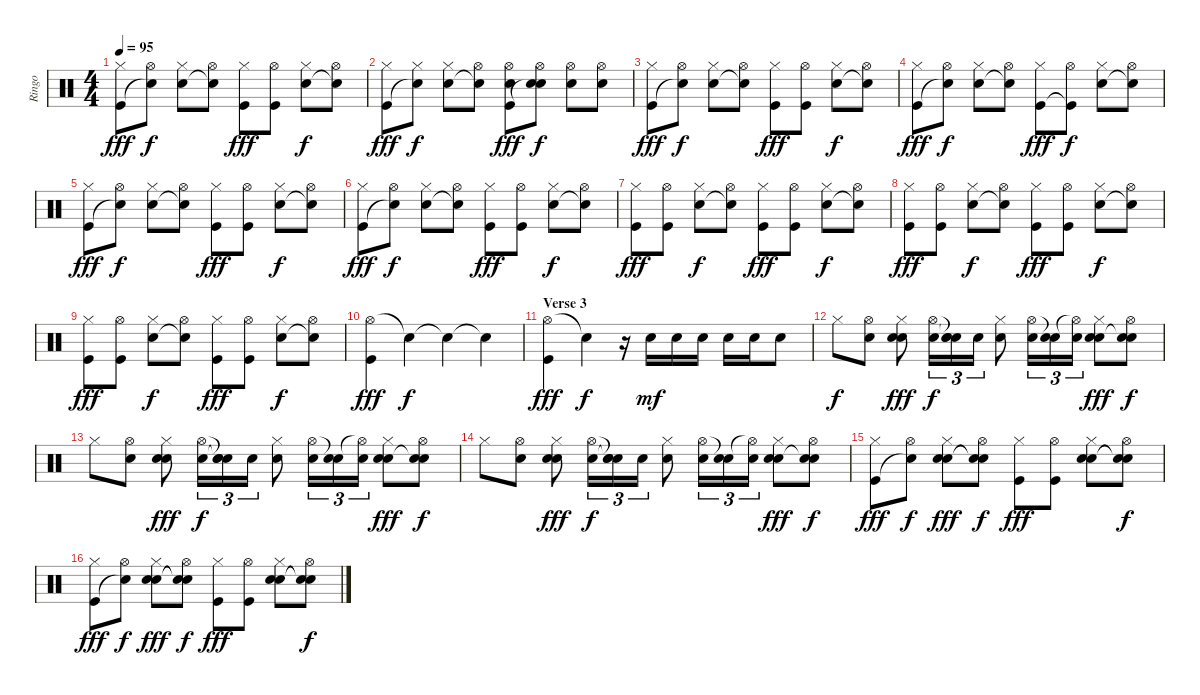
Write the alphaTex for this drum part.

\track ("Ringo" "Ringo") {instrument percussion}
\staff {score}
\articulation defaults
\ts (4 4)
\tempo 95
\clef neutral
\ks c
("Hi-Hat (closed)" "Kick (hit)").8{dy fff} ("Hi-Hat (open)" "Snare (hit)"{t}).8{dy f} ("Hi-Hat (closed)" "Snare (hit) 2").8 ("Hi-Hat (open)" "Snare (hit)"{t}).8 ("Hi-Hat (closed)" "Kick (hit)").8{dy fff} ("Hi-Hat (open)" "Kick (hit)").8 ("Hi-Hat (closed)" "Snare (hit) 2").8{dy f} ("Hi-Hat (open)" "Snare (hit)"{t}).8 |
("Hi-Hat (closed)" "Kick (hit)").8{dy fff} ("Hi-Hat (closed)" "Snare (hit)"{t}).8{dy f} ("Hi-Hat (closed)" "Snare (hit) 2").8 ("Hi-Hat (open)" "Snare (hit)"{t}).8 ("Hi-Hat (open)" "Snare (hit) 2" "Kick (hit)").8{dy fff} ("Hi-Hat (open)" "Snare (hit) 2" "Snare (hit)"{t}).8{dy f} ("Hi-Hat (open)" "Snare (hit) 2").8 ("Hi-Hat (open)" "Snare (hit) 2").8 |
("Hi-Hat (closed)" "Kick (hit)").8{dy fff} ("Hi-Hat (open)" "Snare (hit)"{t}).8{dy f} ("Hi-Hat (closed)" "Snare (hit) 2").8 ("Hi-Hat (open)" "Snare (hit)"{t}).8 ("Hi-Hat (closed)" "Kick (hit)").8{dy fff} ("Hi-Hat (open)" "Kick (hit)").8 ("Hi-Hat (closed)" "Snare (hit) 2").8{dy f} ("Hi-Hat (open)" "Snare (hit)"{t}).8 |
("Hi-Hat (closed)" "Kick (hit)").8{dy fff} ("Hi-Hat (open)" "Snare (hit)"{t}).8{dy f} ("Hi-Hat (closed)" "Snare (hit) 2").8 ("Hi-Hat (open)" "Snare (hit)"{t}).8 ("Hi-Hat (closed)" "Kick (hit)").8{dy fff} ("Hi-Hat (open)" "Kick (hit)"{t}).8{dy f} ("Hi-Hat (closed)" "Snare (hit) 2").8 ("Hi-Hat (open)" "Snare (hit)"{t}).8 |
("Hi-Hat (closed)" "Kick (hit)").8{dy fff} ("Hi-Hat (open)" "Snare (hit)"{t}).8{dy f} ("Hi-Hat (closed)" "Snare (hit) 2").8 ("Hi-Hat (open)" "Snare (hit)"{t}).8 ("Hi-Hat (closed)" "Kick (hit)").8{dy fff} ("Hi-Hat (open)" "Kick (hit)").8 ("Hi-Hat (closed)" "Snare (hit) 2").8{dy f} ("Hi-Hat (open)" "Snare (hit)"{t}).8 |
("Hi-Hat (closed)" "Kick (hit)").8{dy fff} ("Hi-Hat (open)" "Snare (hit)"{t}).8{dy f} ("Hi-Hat (closed)" "Snare (hit) 2").8 ("Hi-Hat (open)" "Snare (hit)"{t}).8 ("Hi-Hat (closed)" "Kick (hit)").8{dy fff} ("Hi-Hat (open)" "Kick (hit)").8 ("Hi-Hat (closed)" "Snare (hit) 2").8{dy f} ("Hi-Hat (open)" "Snare (hit)"{t}).8 |
("Hi-Hat (closed)" "Kick (hit)").8{dy fff} ("Hi-Hat (open)" "Kick (hit)").8 ("Hi-Hat (closed)" "Snare (hit) 2").8{dy f} ("Hi-Hat (open)" "Snare (hit)"{t}).8 ("Hi-Hat (closed)" "Kick (hit)").8{dy fff} ("Hi-Hat (open)" "Kick (hit)").8 ("Hi-Hat (closed)" "Snare (hit) 2").8{dy f} ("Hi-Hat (open)" "Snare (hit)"{t}).8 |
("Hi-Hat (closed)" "Kick (hit)").8{dy fff} ("Hi-Hat (open)" "Kick (hit)").8 ("Hi-Hat (closed)" "Snare (hit) 2").8{dy f} ("Hi-Hat (open)" "Snare (hit)"{t}).8 ("Hi-Hat (closed)" "Kick (hit)").8{dy fff} ("Hi-Hat (open)" "Kick (hit)").8 ("Hi-Hat (closed)" "Snare (hit) 2").8{dy f} ("Hi-Hat (open)" "Snare (hit)"{t}).8 |
("Hi-Hat (closed)" "Kick (hit)").8{dy fff} ("Hi-Hat (open)" "Kick (hit)").8 ("Hi-Hat (closed)" "Snare (hit) 2").8{dy f} ("Hi-Hat (open)" "Snare (hit)"{t}).8 ("Hi-Hat (closed)" "Kick (hit)").8{dy fff} ("Hi-Hat (open)" "Kick (hit)").8 ("Hi-Hat (closed)" "Snare (hit) 2").8{dy f} ("Hi-Hat (open)" "Snare (hit)"{t}).8 |
("Hi-Hat (open)" "Kick (hit)").4{dy fff} "Snare (hit)"{t}.4{dy f} "Snare (hit)"{t}.4 "Snare (hit)"{t}.4 |
\section ("" "Verse 3")
("Hi-Hat (open)" "Kick (hit)").4{dy fff} "Snare (hit)"{t}.4{dy f} r.16 "Snare (hit) 2".16{dy mf} "Snare (hit) 2".16 "Snare (hit) 2".16 "Snare (hit) 2".16 "Snare (hit) 2".16 "Snare (hit) 2".8 |
"Hi-Hat (closed)".8{dy f} ("Hi-Hat (open)" "Snare (hit) 2").8 ("Hand Clap (hit)" "Hi-Hat (closed)" "Snare (hit) 2").8{dy fff} ("Hi-Hat (open)" "Snare (hit) 2").16{tu (3 2) dy f} ("Snare (hit)"{t} "Snare (hit)"{t} "Snare (hit) 2").16{tu (3 2)} "Snare (hit) 2".16{tu (3 2)} ("Hi-Hat (closed)" "Snare (hit) 2").8 ("Hi-Hat (open)" "Snare (hit) 2").16{tu (3 2)} ("Snare (hit)"{t} "Snare (hit) 2").16{tu (3 2)} ("Hi-Hat (open)"{t} "Snare (hit) 2").16{tu (3 2)} ("Hand Clap (hit)" "Hi-Hat (closed)" "Snare (hit) 2").8{dy fff} ("Snare (hit)"{t} "Hi-Hat (open)" "Snare (hit) 2").8{dy f} |
"Hi-Hat (closed)".8 ("Hi-Hat (open)" "Snare (hit) 2").8 ("Hand Clap (hit)" "Hi-Hat (closed)" "Snare (hit) 2").8{dy fff} ("Hi-Hat (open)" "Snare (hit) 2").16{tu (3 2) dy f} ("Snare (hit)"{t} "Snare (hit)"{t} "Snare (hit) 2").16{tu (3 2)} "Snare (hit) 2".16{tu (3 2)} ("Hi-Hat (closed)" "Snare (hit) 2").8 ("Hi-Hat (open)" "Snare (hit) 2").16{tu (3 2)} ("Snare (hit)"{t} "Snare (hit) 2").16{tu (3 2)} ("Hi-Hat (open)"{t} "Snare (hit) 2").16{tu (3 2)} ("Hand Clap (hit)" "Hi-Hat (closed)" "Snare (hit) 2").8{dy fff} ("Snare (hit)"{t} "Hi-Hat (open)" "Snare (hit) 2").8{dy f} |
"Hi-Hat (closed)".8 ("Hi-Hat (open)" "Snare (hit) 2").8 ("Hand Clap (hit)" "Hi-Hat (closed)" "Snare (hit) 2").8{dy fff} ("Hi-Hat (open)" "Snare (hit) 2").16{tu (3 2) dy f} ("Snare (hit)"{t} "Snare (hit)"{t} "Snare (hit) 2").16{tu (3 2)} "Snare (hit) 2".16{tu (3 2)} ("Hi-Hat (closed)" "Snare (hit) 2").8 ("Hi-Hat (open)" "Snare (hit) 2").16{tu (3 2)} ("Snare (hit)"{t} "Snare (hit) 2").16{tu (3 2)} ("Hi-Hat (open)"{t} "Snare (hit) 2").16{tu (3 2)} ("Hand Clap (hit)" "Hi-Hat (closed)" "Snare (hit) 2").8{dy fff} ("Snare (hit)"{t} "Hi-Hat (open)" "Snare (hit) 2").8{dy f} |
("Hi-Hat (closed)" "Kick (hit)").8{dy fff} ("Hi-Hat (open)" "Snare (hit)"{t}).8{dy f} ("Hand Clap (hit)" "Hi-Hat (closed)" "Snare (hit) 2").8{dy fff} ("Snare (hit)"{t} "Hi-Hat (open)" "Snare (hit)"{t}).8{dy f} ("Hi-Hat (closed)" "Kick (hit)").8{dy fff} ("Hi-Hat (open)" "Kick (hit)").8 ("Hand Clap (hit)" "Hi-Hat (closed)" "Snare (hit) 2").8 ("Snare (hit)"{t} "Hi-Hat (open)" "Snare (hit)"{t}).8{dy f} |
("Hi-Hat (closed)" "Kick (hit)").8{dy fff} ("Hi-Hat (open)" "Snare (hit)"{t}).8{dy f} ("Hand Clap (hit)" "Hi-Hat (closed)" "Snare (hit) 2").8{dy fff} ("Snare (hit)"{t} "Hi-Hat (open)" "Snare (hit)"{t}).8{dy f} ("Hi-Hat (closed)" "Kick (hit)").8{dy fff} ("Hi-Hat (open)" "Kick (hit)").8 ("Hand Clap (hit)" "Hi-Hat (closed)" "Snare (hit) 2").8 ("Snare (hit)"{t} "Hi-Hat (open)" "Snare (hit)"{t}).8{dy f}
